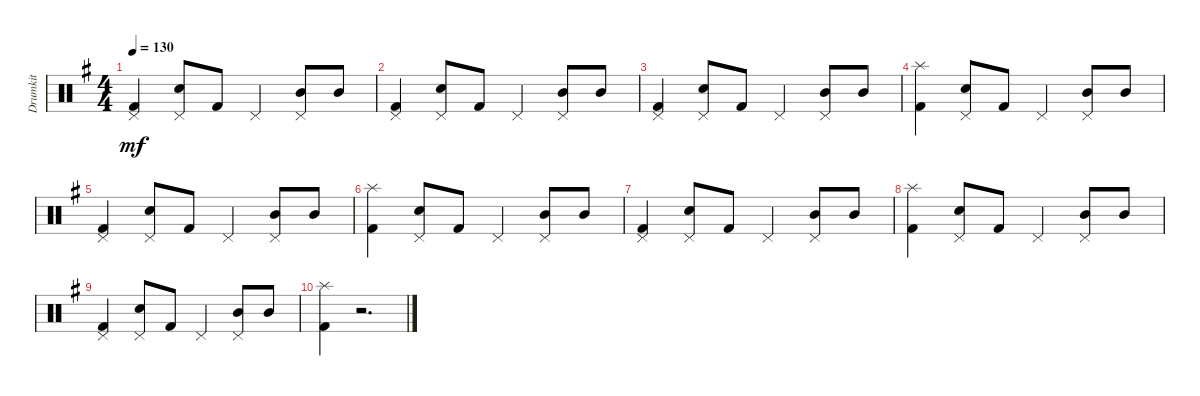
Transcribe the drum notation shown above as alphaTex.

\track ("Drumkit" "Drumkit") {instrument percussion}
\staff {score}
\articulation defaults
\ts (4 4)
\tempo 130
\clef neutral
\ks g
("Pedal Hi-Hat (hit)" "Kick (hit) 2").4{dy mf} ("Pedal Hi-Hat (hit)" "Snare (hit) 2").8 "Kick (hit) 2".8 "Pedal Hi-Hat (hit)".4 ("Pedal Hi-Hat (hit)" "Mid Tom (hit)").8 "Mid Tom (hit)".8 |
("Pedal Hi-Hat (hit)" "Kick (hit) 2").4 ("Pedal Hi-Hat (hit)" "Snare (hit) 2").8 "Kick (hit) 2".8 "Pedal Hi-Hat (hit)".4 ("Pedal Hi-Hat (hit)" "Mid Tom (hit)").8 "Mid Tom (hit)".8 |
("Pedal Hi-Hat (hit)" "Kick (hit) 2").4 ("Pedal Hi-Hat (hit)" "Snare (hit) 2").8 "Kick (hit) 2".8 "Pedal Hi-Hat (hit)".4 ("Pedal Hi-Hat (hit)" "Mid Tom (hit)").8 "Mid Tom (hit)".8 |
("Kick (hit) 2" "Splash (hit)").4 ("Snare (hit) 2" "Pedal Hi-Hat (hit)").8 "Kick (hit) 2".8 "Pedal Hi-Hat (hit)".4 ("Pedal Hi-Hat (hit)" "Mid Tom (hit)").8 "Mid Tom (hit)".8 |
("Pedal Hi-Hat (hit)" "Kick (hit) 2").4 ("Pedal Hi-Hat (hit)" "Snare (hit) 2").8 "Kick (hit) 2".8 "Pedal Hi-Hat (hit)".4 ("Pedal Hi-Hat (hit)" "Mid Tom (hit)").8 "Mid Tom (hit)".8 |
("Kick (hit) 2" "Splash (hit)").4 ("Snare (hit) 2" "Pedal Hi-Hat (hit)").8 "Kick (hit) 2".8 "Pedal Hi-Hat (hit)".4 ("Pedal Hi-Hat (hit)" "Mid Tom (hit)").8 "Mid Tom (hit)".8 |
("Pedal Hi-Hat (hit)" "Kick (hit) 2").4 ("Pedal Hi-Hat (hit)" "Snare (hit) 2").8 "Kick (hit) 2".8 "Pedal Hi-Hat (hit)".4 ("Pedal Hi-Hat (hit)" "Mid Tom (hit)").8 "Mid Tom (hit)".8 |
("Kick (hit) 2" "Splash (hit)").4 ("Snare (hit) 2" "Pedal Hi-Hat (hit)").8 "Kick (hit) 2".8 "Pedal Hi-Hat (hit)".4 ("Pedal Hi-Hat (hit)" "Mid Tom (hit)").8 "Mid Tom (hit)".8 |
("Pedal Hi-Hat (hit)" "Kick (hit) 2").4 ("Pedal Hi-Hat (hit)" "Snare (hit) 2").8 "Kick (hit) 2".8 "Pedal Hi-Hat (hit)".4 ("Pedal Hi-Hat (hit)" "Mid Tom (hit)").8 "Mid Tom (hit)".8 |
("Kick (hit) 2" "Splash (hit)").4 r.2{d}
